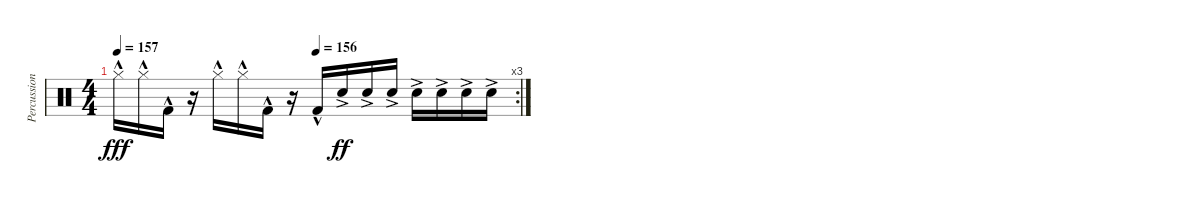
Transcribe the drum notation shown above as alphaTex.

\track ("Percussion" "Percussion") {instrument percussion}
\staff {score}
\articulation defaults
\rc 3
\ts (4 4)
\tempo 157
\tempo (156 0.5)
\clef neutral
\ks c "Hi-Hat (closed)"{hac}.16{dy fff} "Hi-Hat (closed)"{hac}.16 "Kick (hit) 2"{hac}.16
r.16 "Hi-Hat (closed)"{hac}.16 "Hi-Hat (closed)"{hac}.16 "Kick (hit) 2"{hac}.16 r.16 "Kick (hit) 2"{hac}.16 "Snare (hit) 2"{ac}.16{dy ff} "Snare (hit) 2"{ac}.16 "Snare (hit) 2"{ac}.16 "Snare (hit) 2"{ac}.16 "Snare (hit) 2"{ac}.16 "Snare (hit) 2"{ac}.16 "Snare (hit) 2"{ac}.16
